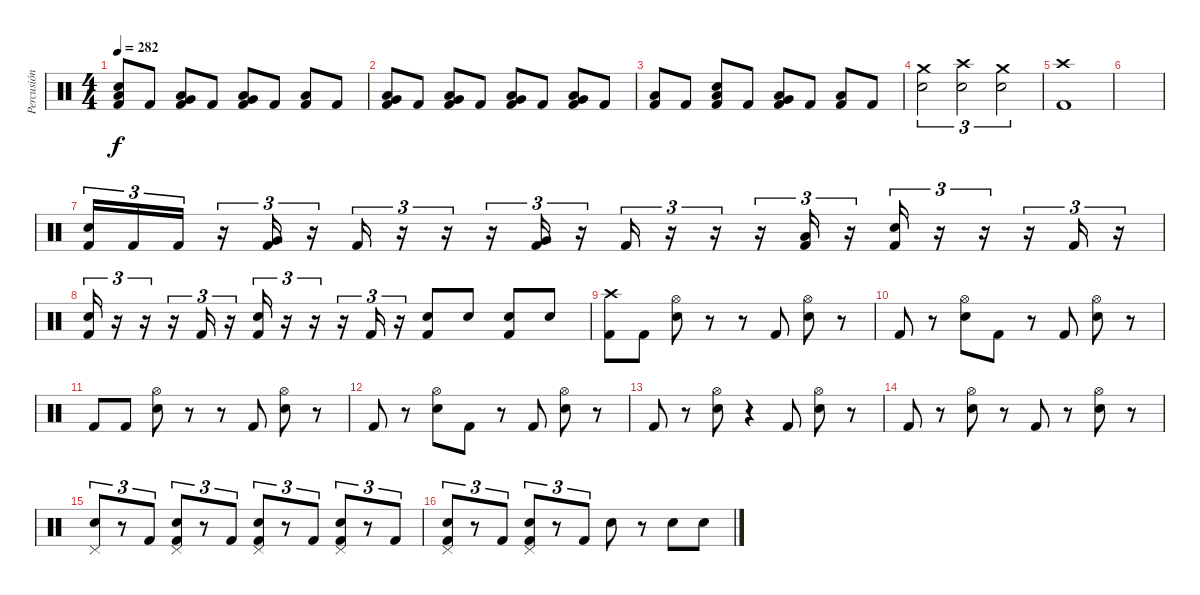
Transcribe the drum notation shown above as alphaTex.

\track ("Percusión" "Percusión") {instrument percussion}
\staff {score}
\articulation defaults
\ts (4 4)
\tempo 282
\clef neutral
\ks c
("Kick (hit) 2" "Snare (hit) 2" "Low Tom (hit)").8{dy f} "Kick (hit) 2".8 ("Kick (hit) 2" "Low Tom (hit)" "Very Low Tom (hit)").8 "Kick (hit) 2".8 ("Kick (hit) 2" "Very Low Tom (hit)" "Low Floor Tom (hit)").8 "Kick (hit) 2".8 ("Kick (hit) 2" "Low Floor Tom (hit)").8 "Kick (hit) 2".8 |
("Kick (hit) 2" "Low Tom (hit)" "Very Low Tom (hit)").8 "Kick (hit) 2".8 ("Kick (hit) 2" "Low Tom (hit)" "Very Low Tom (hit)").8 "Kick (hit) 2".8 ("Kick (hit) 2" "Very Low Tom (hit)" "Low Floor Tom (hit)").8 "Kick (hit) 2".8 ("Kick (hit) 2" "Very Low Tom (hit)" "Low Floor Tom (hit)").8 "Kick (hit) 2".8 |
("Kick (hit) 2" "Low Floor Tom (hit)").8 "Kick (hit) 2".8 ("Kick (hit) 2" "Snare (hit) 2" "Low Tom (hit)").8 "Kick (hit) 2".8 ("Kick (hit) 2" "Very Low Tom (hit)" "Low Floor Tom (hit)").8 "Kick (hit) 2".8 ("Kick (hit) 2" "Low Floor Tom (hit)").8 "Kick (hit) 2".8 |
("Snare (hit) 2" "Crash medium (hit)").2{tu (3 2)} ("Snare (hit) 2" "Crash high (hit)").2{tu (3 2)} ("Snare (hit) 2" "Crash medium (hit)").2{tu (3 2)} |
("Kick (hit) 2" "Crash high (hit)").1 |
|
("Kick (hit) 2" "Snare (hit) 2").16{tu (3 2)} "Kick (hit) 2".16{tu (3 2)} "Kick (hit) 2".16{tu (3 2)} r.16{tu (3 2)} ("Kick (hit) 2" "Very Low Tom (hit)").16{tu (3 2)} r.16{tu (3 2)} "Kick (hit) 2".16{tu (3 2)} r.16{tu (3 2)} r.16{tu (3 2)} r.16{tu (3 2)} ("Kick (hit) 2" "Very Low Tom (hit)").16{tu (3 2)} r.16{tu (3 2)} "Kick (hit) 2".16{tu (3 2)} r.16{tu (3 2)} r.16{tu (3 2)} r.16{tu (3 2)} ("Kick (hit) 2" "Low Floor Tom (hit)").16{tu (3 2)} r.16{tu (3 2)} ("Kick (hit) 2" "Snare (hit) 2").16{tu (3 2)} r.16{tu (3 2)} r.16{tu (3 2)} r.16{tu (3 2)} "Kick (hit) 2".16{tu (3 2)} r.16{tu (3 2)} |
("Kick (hit) 2" "Snare (hit) 2").16{tu (3 2)} r.16{tu (3 2)} r.16{tu (3 2)} r.16{tu (3 2)} "Kick (hit) 2".16{tu (3 2)} r.16{tu (3 2)} ("Kick (hit) 2" "Snare (hit) 2").16{tu (3 2)} r.16{tu (3 2)} r.16{tu (3 2)} r.16{tu (3 2)} "Kick (hit) 2".16{tu (3 2)} r.16{tu (3 2)} ("Kick (hit) 2" "Snare (hit) 2").8 "Snare (hit) 2".8 ("Kick (hit) 2" "Snare (hit) 2").8 "Snare (hit) 2".8 |
("Kick (hit) 2" "Crash high (hit)").8 "Kick (hit) 2".8 ("Snare (hit) 2" "Hi-Hat (open)").8 r.8 r.8 "Kick (hit) 2".8 ("Snare (hit) 2" "Hi-Hat (open)").8 r.8 |
"Kick (hit) 2".8 r.8 ("Snare (hit) 2" "Hi-Hat (open)").8 "Kick (hit) 2".8 r.8 "Kick (hit) 2".8 ("Snare (hit) 2" "Hi-Hat (open)").8 r.8 |
"Kick (hit) 2".8 "Kick (hit) 2".8 ("Snare (hit) 2" "Hi-Hat (open)").8 r.8 r.8 "Kick (hit) 2".8 ("Snare (hit) 2" "Hi-Hat (open)").8 r.8 |
"Kick (hit) 2".8 r.8 ("Snare (hit) 2" "Hi-Hat (open)").8 "Kick (hit) 2".8 r.8 "Kick (hit) 2".8 ("Snare (hit) 2" "Hi-Hat (open)").8 r.8 |
"Kick (hit) 2".8 r.8 ("Snare (hit) 2" "Hi-Hat (open)").8 r.4 "Kick (hit) 2".8 ("Snare (hit) 2" "Hi-Hat (open)").8 r.8 |
"Kick (hit) 2".8 r.8 ("Snare (hit) 2" "Hi-Hat (open)").8 r.8 "Kick (hit) 2".8 r.8 ("Snare (hit) 2" "Hi-Hat (open)").8 r.8 |
("Snare (hit) 2" "Pedal Hi-Hat (hit)").8{tu (3 2)} r.8{tu (3 2)} "Kick (hit) 2".8{tu (3 2)} ("Kick (hit) 2" "Snare (hit) 2" "Pedal Hi-Hat (hit)").8{tu (3 2)} r.8{tu (3 2)} "Kick (hit) 2".8{tu (3 2)} ("Kick (hit) 2" "Snare (hit) 2" "Pedal Hi-Hat (hit)").8{tu (3 2)} r.8{tu (3 2)} "Kick (hit) 2".8{tu (3 2)} ("Kick (hit) 2" "Snare (hit) 2" "Pedal Hi-Hat (hit)").8{tu (3 2)} r.8{tu (3 2)} "Kick (hit) 2".8{tu (3 2)} |
("Kick (hit) 2" "Snare (hit) 2" "Pedal Hi-Hat (hit)").8{tu (3 2)} r.8{tu (3 2)} "Kick (hit) 2".8{tu (3 2)} ("Kick (hit) 2" "Snare (hit) 2" "Pedal Hi-Hat (hit)").8{tu (3 2)} r.8{tu (3 2)} "Kick (hit) 2".8{tu (3 2)} "Snare (hit) 2".8 r.8 "Snare (hit) 2".8 "Snare (hit) 2".8
